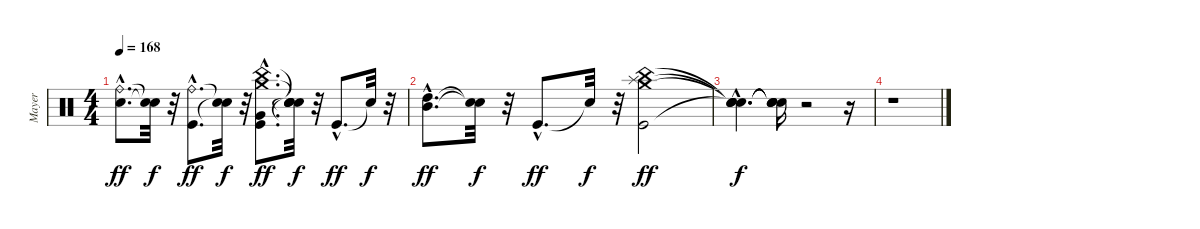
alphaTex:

\track ("Mayer" "Mayer") {instrument percussion}
\staff {score}
\articulation defaults
\ts (4 4)
\tempo 168
\clef neutral
\ks c
("Electric Snare (hit)"{hac} "Ride (bell)"{hac}).8{d dy ff} ("Snare (hit)"{t} "Snare (hit)"{t}).32{dy f} r.32 ("Kick (hit)"{hac} "Ride (bell)"{hac}).8{d dy ff} ("Snare (hit)"{t} "Snare (hit)"{t}).32{dy f} r.32 ("Kick (hit)"{hac} "Very Low Tom (hit)"{hac} "China (hit)"{hac} "Crash medium (hit)"{hac}).8{d dy ff} ("Snare (hit)"{t} "Snare (hit)"{t} "Snare (hit)"{t} "Snare (hit)"{t}).32{dy f} r.32 "Kick (hit)"{hac}.8{d dy ff} "Snare (hit)"{t}.32{dy f} r.32 |
("Mid Tom (hit)"{hac} "High Tom (hit)"{hac}).8{d dy ff} ("Snare (hit)"{t} "Snare (hit)"{t}).32{dy f} r.32 "Kick (hit)"{hac}.8{d dy ff} "Snare (hit)"{t}.32{dy f} r.32 ("Kick (hit)" "China (hit)" "Splash (hit)" "Crash medium (hit)").2{dy ff} |
("Snare (hit)"{hac t} "Snare (hit)"{hac t} "Snare (hit)"{hac t} "Snare (hit)"{hac t}).4{d dy f} ("Snare (hit)"{t} "Snare (hit)"{t} "Snare (hit)"{t} "Snare (hit)"{t}).16 r.2 r.16 |
r.1
